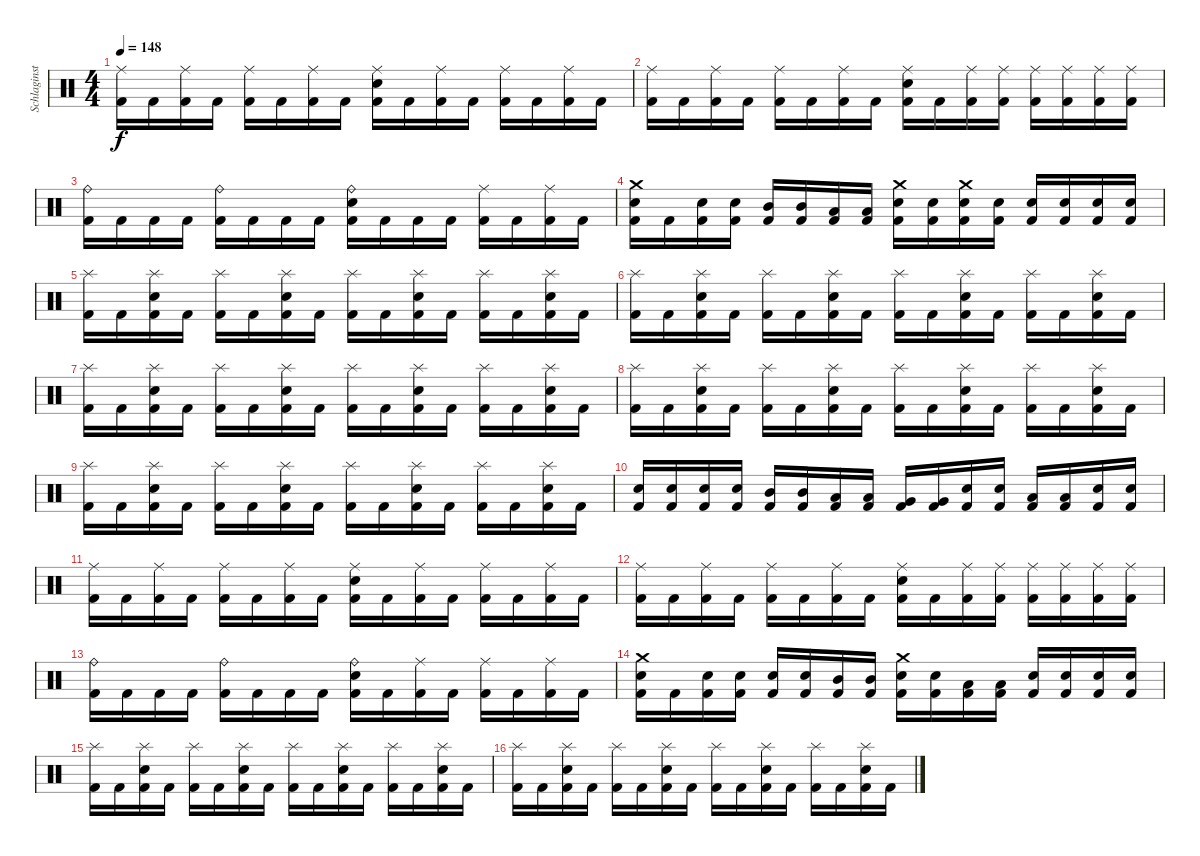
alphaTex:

\track ("Schlaginstrumente - Auswahl" "Schlaginst") {instrument percussion}
\staff {score}
\articulation defaults
\ts (4 4)
\tempo 148
\clef neutral
\ks c
("Ride (middle)" "Kick (hit) 2").16{dy f} "Kick (hit) 2".16 ("Ride (middle)" "Kick (hit) 2").16 "Kick (hit) 2".16 ("Ride (middle)" "Kick (hit) 2").16 "Kick (hit) 2".16 ("Ride (middle)" "Kick (hit) 2").16 "Kick (hit) 2".16 ("Ride (middle)" "Electric Snare (hit)" "Kick (hit) 2").16 "Kick (hit) 2".16 ("Ride (middle)" "Kick (hit) 2").16 "Kick (hit) 2".16 ("Ride (middle)" "Kick (hit) 2").16 "Kick (hit) 2".16 ("Ride (middle)" "Kick (hit) 2").16 "Kick (hit) 2".16 |
("Ride (middle)" "Kick (hit) 2").16 "Kick (hit) 2".16 ("Ride (middle)" "Kick (hit) 2").16 "Kick (hit) 2".16 ("Ride (middle)" "Kick (hit) 2").16 "Kick (hit) 2".16 ("Ride (middle)" "Kick (hit) 2").16 "Kick (hit) 2".16 ("Ride (middle)" "Electric Snare (hit)" "Kick (hit) 2").16 "Kick (hit) 2".16 ("Ride (middle)" "Kick (hit) 2").16 ("Ride (middle)" "Kick (hit) 2").16 ("Ride (middle)" "Kick (hit) 2").16 ("Ride (middle)" "Kick (hit) 2").16 ("Ride (middle)" "Kick (hit) 2").16 ("Ride (middle)" "Kick (hit) 2").16 |
("Ride (bell)" "Kick (hit) 2").16 "Kick (hit) 2".16 "Kick (hit) 2".16 "Kick (hit) 2".16 ("Ride (bell)" "Kick (hit) 2").16 "Kick (hit) 2".16 "Kick (hit) 2".16 "Kick (hit) 2".16 ("Ride (bell)" "Electric Snare (hit)" "Kick (hit) 2").16 "Kick (hit) 2".16 "Kick (hit) 2".16 "Kick (hit) 2".16 ("Ride (middle)" "Kick (hit) 2").16 "Kick (hit) 2".16 ("Ride (middle)" "Kick (hit) 2").16 "Kick (hit) 2".16 |
("Crash medium (hit)" "Electric Snare (hit)" "Kick (hit) 2").16 "Kick (hit) 2".16 ("Electric Snare (hit)" "Kick (hit) 2").16 ("Electric Snare (hit)" "Kick (hit) 2").16 ("Mid Tom (hit)" "Kick (hit) 2").16 ("Mid Tom (hit)" "Kick (hit) 2").16 ("Low Tom (hit)" "Kick (hit) 2").16 ("Low Tom (hit)" "Kick (hit) 2").16 ("Crash medium (hit)" "Electric Snare (hit)" "Kick (hit) 2").16 ("Electric Snare (hit)" "Kick (hit) 2").16 ("Crash medium (hit)" "Electric Snare (hit)" "Kick (hit) 2").16 ("Electric Snare (hit)" "Kick (hit) 2").16 ("Electric Snare (hit)" "Kick (hit) 2").16 ("Electric Snare (hit)" "Kick (hit) 2").16 ("Electric Snare (hit)" "Kick (hit) 2").16 ("Electric Snare (hit)" "Kick (hit) 2").16 |
("Splash (hit)" "Kick (hit) 2").16 "Kick (hit) 2".16 ("Splash (hit)" "Electric Snare (hit)" "Kick (hit) 2").16 "Kick (hit) 2".16 ("Splash (hit)" "Kick (hit) 2").16 "Kick (hit) 2".16 ("Splash (hit)" "Electric Snare (hit)" "Kick (hit) 2").16 "Kick (hit) 2".16 ("Splash (hit)" "Kick (hit) 2").16 "Kick (hit) 2".16 ("Splash (hit)" "Electric Snare (hit)" "Kick (hit) 2").16 "Kick (hit) 2".16 ("Splash (hit)" "Kick (hit) 2").16 "Kick (hit) 2".16 ("Splash (hit)" "Electric Snare (hit)" "Kick (hit) 2").16 "Kick (hit) 2".16 |
("Splash (hit)" "Kick (hit) 2").16 "Kick (hit) 2".16 ("Splash (hit)" "Electric Snare (hit)" "Kick (hit) 2").16 "Kick (hit) 2".16 ("Splash (hit)" "Kick (hit) 2").16 "Kick (hit) 2".16 ("Splash (hit)" "Electric Snare (hit)" "Kick (hit) 2").16 "Kick (hit) 2".16 ("Splash (hit)" "Kick (hit) 2").16 "Kick (hit) 2".16 ("Splash (hit)" "Electric Snare (hit)" "Kick (hit) 2").16 "Kick (hit) 2".16 ("Splash (hit)" "Kick (hit) 2").16 "Kick (hit) 2".16 ("Splash (hit)" "Electric Snare (hit)" "Kick (hit) 2").16 "Kick (hit) 2".16 |
("Splash (hit)" "Kick (hit) 2").16 "Kick (hit) 2".16 ("Splash (hit)" "Electric Snare (hit)" "Kick (hit) 2").16 "Kick (hit) 2".16 ("Splash (hit)" "Kick (hit) 2").16 "Kick (hit) 2".16 ("Splash (hit)" "Electric Snare (hit)" "Kick (hit) 2").16 "Kick (hit) 2".16 ("Splash (hit)" "Kick (hit) 2").16 "Kick (hit) 2".16 ("Splash (hit)" "Electric Snare (hit)" "Kick (hit) 2").16 "Kick (hit) 2".16 ("Splash (hit)" "Kick (hit) 2").16 "Kick (hit) 2".16 ("Splash (hit)" "Electric Snare (hit)" "Kick (hit) 2").16 "Kick (hit) 2".16 |
("Splash (hit)" "Kick (hit) 2").16 "Kick (hit) 2".16 ("Splash (hit)" "Electric Snare (hit)" "Kick (hit) 2").16 "Kick (hit) 2".16 ("Splash (hit)" "Kick (hit) 2").16 "Kick (hit) 2".16 ("Splash (hit)" "Electric Snare (hit)" "Kick (hit) 2").16 "Kick (hit) 2".16 ("Splash (hit)" "Kick (hit) 2").16 "Kick (hit) 2".16 ("Splash (hit)" "Electric Snare (hit)" "Kick (hit) 2").16 "Kick (hit) 2".16 ("Splash (hit)" "Kick (hit) 2").16 "Kick (hit) 2".16 ("Splash (hit)" "Electric Snare (hit)" "Kick (hit) 2").16 "Kick (hit) 2".16 |
("Splash (hit)" "Kick (hit) 2").16 "Kick (hit) 2".16 ("Splash (hit)" "Electric Snare (hit)" "Kick (hit) 2").16 "Kick (hit) 2".16 ("Splash (hit)" "Kick (hit) 2").16 "Kick (hit) 2".16 ("Splash (hit)" "Electric Snare (hit)" "Kick (hit) 2").16 "Kick (hit) 2".16 ("Splash (hit)" "Kick (hit) 2").16 "Kick (hit) 2".16 ("Splash (hit)" "Electric Snare (hit)" "Kick (hit) 2").16 "Kick (hit) 2".16 ("Splash (hit)" "Kick (hit) 2").16 "Kick (hit) 2".16 ("Splash (hit)" "Electric Snare (hit)" "Kick (hit) 2").16 "Kick (hit) 2".16 |
("Electric Snare (hit)" "Kick (hit) 2").16 ("Electric Snare (hit)" "Kick (hit) 2").16 ("Electric Snare (hit)" "Kick (hit) 2").16 ("Electric Snare (hit)" "Kick (hit) 2").16 ("Mid Tom (hit)" "Kick (hit) 2").16 ("Mid Tom (hit)" "Kick (hit) 2").16 ("Low Tom (hit)" "Kick (hit) 2").16 ("Low Tom (hit)" "Kick (hit) 2").16 ("Very Low Tom (hit)" "Kick (hit) 2").16 ("Very Low Tom (hit)" "Kick (hit) 2").16 ("Electric Snare (hit)" "Kick (hit) 2").16 ("Electric Snare (hit)" "Kick (hit) 2").16 ("Low Tom (hit)" "Kick (hit) 2").16 ("Low Tom (hit)" "Kick (hit) 2").16 ("Electric Snare (hit)" "Kick (hit) 2").16 ("Electric Snare (hit)" "Kick (hit) 2").16 |
("Ride (middle)" "Kick (hit) 2").16 "Kick (hit) 2".16 ("Ride (middle)" "Kick (hit) 2").16 "Kick (hit) 2".16 ("Ride (middle)" "Kick (hit) 2").16 "Kick (hit) 2".16 ("Ride (middle)" "Kick (hit) 2").16 "Kick (hit) 2".16 ("Ride (middle)" "Electric Snare (hit)" "Kick (hit) 2").16 "Kick (hit) 2".16 ("Ride (middle)" "Kick (hit) 2").16 "Kick (hit) 2".16 ("Ride (middle)" "Kick (hit) 2").16 "Kick (hit) 2".16 ("Ride (middle)" "Kick (hit) 2").16 "Kick (hit) 2".16 |
("Ride (middle)" "Kick (hit) 2").16 "Kick (hit) 2".16 ("Ride (middle)" "Kick (hit) 2").16 "Kick (hit) 2".16 ("Ride (middle)" "Kick (hit) 2").16 "Kick (hit) 2".16 ("Ride (middle)" "Kick (hit) 2").16 "Kick (hit) 2".16 ("Ride (middle)" "Electric Snare (hit)" "Kick (hit) 2").16 "Kick (hit) 2".16 ("Ride (middle)" "Kick (hit) 2").16 ("Ride (middle)" "Kick (hit) 2").16 ("Ride (middle)" "Kick (hit) 2").16 ("Ride (middle)" "Kick (hit) 2").16 ("Ride (middle)" "Kick (hit) 2").16 ("Ride (middle)" "Kick (hit) 2").16 |
("Ride (bell)" "Kick (hit) 2").16 "Kick (hit) 2".16 "Kick (hit) 2".16 "Kick (hit) 2".16 ("Ride (bell)" "Kick (hit) 2").16 "Kick (hit) 2".16 "Kick (hit) 2".16 "Kick (hit) 2".16 ("Ride (bell)" "Electric Snare (hit)" "Kick (hit) 2").16 "Kick (hit) 2".16 ("Ride (middle)" "Kick (hit) 2").16 "Kick (hit) 2".16 ("Ride (middle)" "Kick (hit) 2").16 "Kick (hit) 2".16 ("Ride (middle)" "Kick (hit) 2").16 "Kick (hit) 2".16 |
("Crash medium (hit)" "Electric Snare (hit)" "Kick (hit) 2").16 "Kick (hit) 2".16 ("Electric Snare (hit)" "Kick (hit) 2").16 ("Electric Snare (hit)" "Kick (hit) 2").16 ("Electric Snare (hit)" "Kick (hit) 2").16 ("Electric Snare (hit)" "Kick (hit) 2").16 ("Mid Tom (hit)" "Kick (hit) 2").16 ("Mid Tom (hit)" "Kick (hit) 2").16 ("Crash medium (hit)" "Electric Snare (hit)" "Kick (hit) 2").16 ("Electric Snare (hit)" "Kick (hit) 2").16 ("Low Tom (hit)" "Kick (hit) 2").16 ("Low Tom (hit)" "Kick (hit) 2").16 ("Electric Snare (hit)" "Kick (hit) 2").16 ("Electric Snare (hit)" "Kick (hit) 2").16 ("Electric Snare (hit)" "Kick (hit) 2").16 ("Electric Snare (hit)" "Kick (hit) 2").16 |
("Splash (hit)" "Kick (hit) 2").16 "Kick (hit) 2".16 ("Splash (hit)" "Electric Snare (hit)" "Kick (hit) 2").16 "Kick (hit) 2".16 ("Splash (hit)" "Kick (hit) 2").16 "Kick (hit) 2".16 ("Splash (hit)" "Electric Snare (hit)" "Kick (hit) 2").16 "Kick (hit) 2".16 ("Splash (hit)" "Kick (hit) 2").16 "Kick (hit) 2".16 ("Splash (hit)" "Electric Snare (hit)" "Kick (hit) 2").16 "Kick (hit) 2".16 ("Splash (hit)" "Kick (hit) 2").16 "Kick (hit) 2".16 ("Splash (hit)" "Electric Snare (hit)" "Kick (hit) 2").16 "Kick (hit) 2".16 |
("Splash (hit)" "Kick (hit) 2").16 "Kick (hit) 2".16 ("Splash (hit)" "Electric Snare (hit)" "Kick (hit) 2").16 "Kick (hit) 2".16 ("Splash (hit)" "Kick (hit) 2").16 "Kick (hit) 2".16 ("Splash (hit)" "Electric Snare (hit)" "Kick (hit) 2").16 "Kick (hit) 2".16 ("Splash (hit)" "Kick (hit) 2").16 "Kick (hit) 2".16 ("Splash (hit)" "Electric Snare (hit)" "Kick (hit) 2").16 "Kick (hit) 2".16 ("Splash (hit)" "Kick (hit) 2").16 "Kick (hit) 2".16 ("Splash (hit)" "Electric Snare (hit)" "Kick (hit) 2").16 "Kick (hit) 2".16
